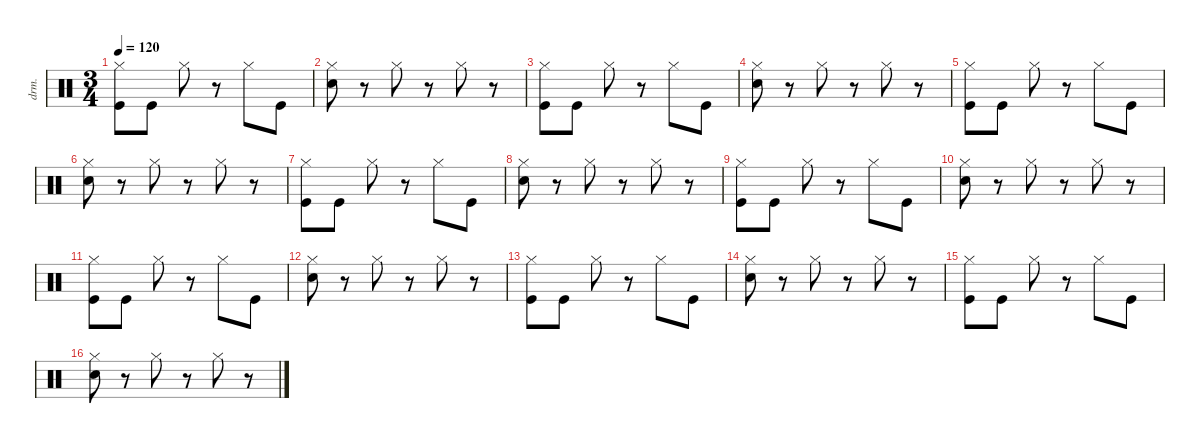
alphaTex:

\defaultSystemsLayout 4
\hideDynamics
\bracketExtendMode nobrackets
\otherSystemsTrackNameOrientation horizontal
\track ("Drumkit" "drm.") {instrument percussion}
\staff {score}
\articulation defaults
\ts (3 4)
\beaming (8 2 2 2)
\tempo 120
\clef neutral
\ks c
("Kick (hit)" "Hi-Hat (closed)").8{dy mf beam Down} "Kick (hit)".8{beam Down} "Hi-Hat (closed)".8{beam Down} r.8{beam Down} "Hi-Hat (closed)".8{beam Down} "Kick (hit)".8{beam Down} |
("Hi-Hat (closed)" "Snare (hit) 2").8{beam Down} r.8{beam Down} "Hi-Hat (closed)".8{beam Down} r.8{beam Down} "Hi-Hat (closed)".8{beam Down} r.8{beam Down} |
("Kick (hit)" "Hi-Hat (closed)").8{beam Down} "Kick (hit)".8{beam Down} "Hi-Hat (closed)".8{beam Down} r.8{beam Down} "Hi-Hat (closed)".8{beam Down} "Kick (hit)".8{beam Down} |
("Hi-Hat (closed)" "Snare (hit) 2").8{beam Down} r.8{beam Down} "Hi-Hat (closed)".8{beam Down} r.8{beam Down} "Hi-Hat (closed)".8{beam Down} r.8{beam Down} |
("Kick (hit)" "Hi-Hat (closed)").8{beam Down} "Kick (hit)".8{beam Down} "Hi-Hat (closed)".8{beam Down} r.8{beam Down} "Hi-Hat (closed)".8{beam Down} "Kick (hit)".8{beam Down} |
("Hi-Hat (closed)" "Snare (hit) 2").8{beam Down} r.8{beam Down} "Hi-Hat (closed)".8{beam Down} r.8{beam Down} "Hi-Hat (closed)".8{beam Down} r.8{beam Down} |
("Kick (hit)" "Hi-Hat (closed)").8{beam Down} "Kick (hit)".8{beam Down} "Hi-Hat (closed)".8{beam Down} r.8{beam Down} "Hi-Hat (closed)".8{beam Down} "Kick (hit)".8{beam Down} |
("Hi-Hat (closed)" "Snare (hit) 2").8{beam Down} r.8{beam Down} "Hi-Hat (closed)".8{beam Down} r.8{beam Down} "Hi-Hat (closed)".8{beam Down} r.8{beam Down} |
("Kick (hit)" "Hi-Hat (closed)").8{beam Down} "Kick (hit)".8{beam Down} "Hi-Hat (closed)".8{beam Down} r.8{beam Down} "Hi-Hat (closed)".8{beam Down} "Kick (hit)".8{beam Down} |
("Hi-Hat (closed)" "Snare (hit) 2").8{beam Down} r.8{beam Down} "Hi-Hat (closed)".8{beam Down} r.8{beam Down} "Hi-Hat (closed)".8{beam Down} r.8{beam Down} |
("Kick (hit)" "Hi-Hat (closed)").8{beam Down} "Kick (hit)".8{beam Down} "Hi-Hat (closed)".8{beam Down} r.8{beam Down} "Hi-Hat (closed)".8{beam Down} "Kick (hit)".8{beam Down} |
("Hi-Hat (closed)" "Snare (hit) 2").8{beam Down} r.8{beam Down} "Hi-Hat (closed)".8{beam Down} r.8{beam Down} "Hi-Hat (closed)".8{beam Down} r.8{beam Down} |
("Kick (hit)" "Hi-Hat (closed)").8{beam Down} "Kick (hit)".8{beam Down} "Hi-Hat (closed)".8{beam Down} r.8{beam Down} "Hi-Hat (closed)".8{beam Down} "Kick (hit)".8{beam Down} |
("Hi-Hat (closed)" "Snare (hit) 2").8{beam Down} r.8{beam Down} "Hi-Hat (closed)".8{beam Down} r.8{beam Down} "Hi-Hat (closed)".8{beam Down} r.8{beam Down} |
("Kick (hit)" "Hi-Hat (closed)").8{beam Down} "Kick (hit)".8{beam Down} "Hi-Hat (closed)".8{beam Down} r.8{beam Down} "Hi-Hat (closed)".8{beam Down} "Kick (hit)".8{beam Down} |
("Hi-Hat (closed)" "Snare (hit) 2").8{beam Down} r.8{beam Down} "Hi-Hat (closed)".8{beam Down} r.8{beam Down} "Hi-Hat (closed)".8{beam Down} r.8{beam Down}
